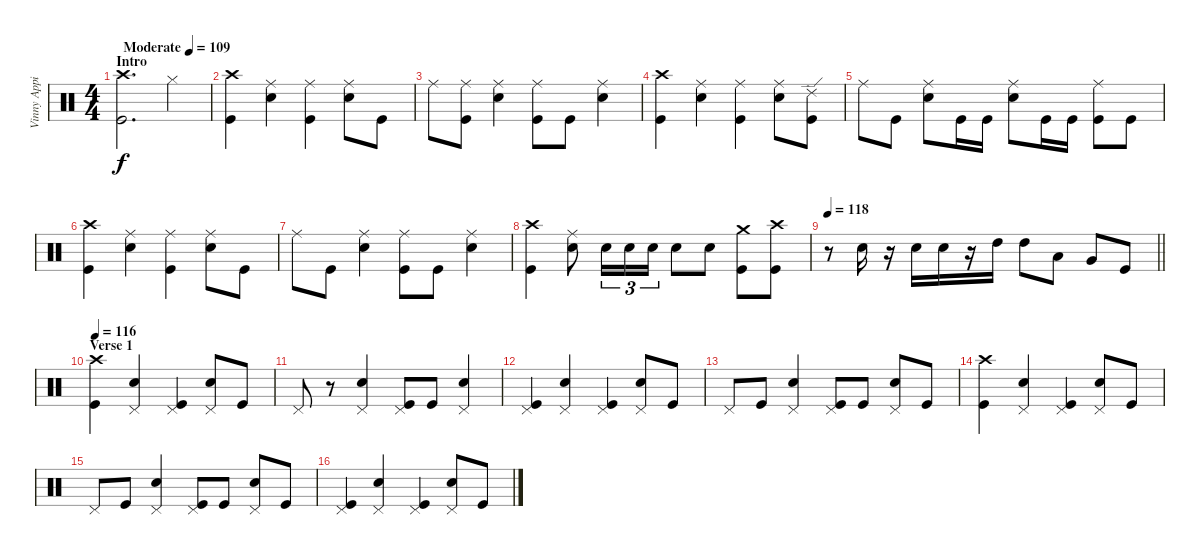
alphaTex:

\track ("Vinny Appice" "Vinny Appi") {instrument percussion}
\staff {score}
\articulation defaults
\ts (4 4)
\section ("" "Intro")
\tempo (109 "Moderate")
\clef neutral
\ks c
("Kick (hit)" "Crash high (hit)").2{d dy f} "Hi-Hat (closed)".4 |
("Kick (hit)" "Crash high (hit)").4 ("Snare (hit) 2" "Ride (middle)").4 ("Kick (hit)" "Ride (middle)").4 ("Snare (hit) 2" "Ride (middle)").8 "Kick (hit)".8 |
"Ride (middle)".8 ("Kick (hit)" "Ride (middle)").8 ("Snare (hit) 2" "Ride (middle)").4 ("Kick (hit)" "Ride (middle)").8 "Kick (hit)".8 ("Snare (hit) 2" "Ride (middle)").4 |
("Kick (hit)" "Crash high (hit)").4 ("Snare (hit) 2" "Ride (middle)").4 ("Kick (hit)" "Ride (middle)").4 ("Snare (hit) 2" "Ride (middle)").8 ("Kick (hit)" "Ride (edge) 2").8 |
"Ride (middle)".8 "Kick (hit)".8 ("Snare (hit) 2" "Ride (middle)").8 "Kick (hit)".16 "Kick (hit)".16 ("Snare (hit) 2" "Ride (middle)").8 "Kick (hit)".16 "Kick (hit)".16 ("Kick (hit)" "Ride (middle)").8 "Kick (hit)".8 |
("Kick (hit)" "Crash high (hit)").4 ("Snare (hit) 2" "Ride (middle)").4 ("Kick (hit)" "Ride (middle)").4 ("Snare (hit) 2" "Ride (middle)").8 "Kick (hit)".8 |
"Ride (middle)".8 "Kick (hit)".8 ("Snare (hit) 2" "Ride (middle)").4 ("Kick (hit)" "Ride (middle)").8 "Kick (hit)".8 ("Snare (hit) 2" "Ride (middle)").4 |
("Kick (hit)" "Crash high (hit)").4 ("Snare (hit) 2" "Ride (middle)").8 "Snare (hit) 2".16{tu (3 2)} "Snare (hit) 2".16{tu (3 2)} "Snare (hit) 2".16{tu (3 2)} "Snare (hit) 2".8 "Snare (hit) 2".8 ("Crash medium (hit)" "Kick (hit)").8 ("Kick (hit)" "Crash high (hit)").8 |
\tempo 118
\barLineRight lightlight
r.8 "Snare (hit) 2".16 r.16 "Snare (hit) 2".16 "Snare (hit) 2".16 r.16 "High Tom (hit)".16 "High Tom (hit)".8 "Low Tom (hit)".8 "Very Low Tom (hit)".8 "Kick (hit)".8 |
\section ("" "Verse 1")
\tempo 116
("Kick (hit)" "Crash high (hit)").4 ("Pedal Hi-Hat (hit)" "Snare (hit) 2").4 ("Pedal Hi-Hat (hit)" "Kick (hit)").4 ("Pedal Hi-Hat (hit)" "Snare (hit) 2").8 "Kick (hit)".8 |
"Pedal Hi-Hat (hit)".8 r.8 ("Pedal Hi-Hat (hit)" "Snare (hit) 2").4 ("Pedal Hi-Hat (hit)" "Kick (hit)").8 "Kick (hit)".8 ("Pedal Hi-Hat (hit)" "Snare (hit) 2").4 |
("Pedal Hi-Hat (hit)" "Kick (hit)").4 ("Pedal Hi-Hat (hit)" "Snare (hit) 2").4 ("Pedal Hi-Hat (hit)" "Kick (hit)").4 ("Pedal Hi-Hat (hit)" "Snare (hit) 2").8 "Kick (hit)".8 |
"Pedal Hi-Hat (hit)".8 "Kick (hit)".8 ("Pedal Hi-Hat (hit)" "Snare (hit) 2").4 ("Pedal Hi-Hat (hit)" "Kick (hit)").8 "Kick (hit)".8 ("Pedal Hi-Hat (hit)" "Snare (hit) 2").8 "Kick (hit)".8 |
("Kick (hit)" "Crash high (hit)").4 ("Pedal Hi-Hat (hit)" "Snare (hit) 2").4 ("Pedal Hi-Hat (hit)" "Kick (hit)").4 ("Pedal Hi-Hat (hit)" "Snare (hit) 2").8 "Kick (hit)".8 |
"Pedal Hi-Hat (hit)".8 "Kick (hit)".8 ("Pedal Hi-Hat (hit)" "Snare (hit) 2").4 ("Pedal Hi-Hat (hit)" "Kick (hit)").8 "Kick (hit)".8 ("Pedal Hi-Hat (hit)" "Snare (hit) 2").8 "Kick (hit)".8 |
("Pedal Hi-Hat (hit)" "Kick (hit)").4 ("Pedal Hi-Hat (hit)" "Snare (hit) 2").4 ("Pedal Hi-Hat (hit)" "Kick (hit)").4 ("Pedal Hi-Hat (hit)" "Snare (hit) 2").8 "Kick (hit)".8
